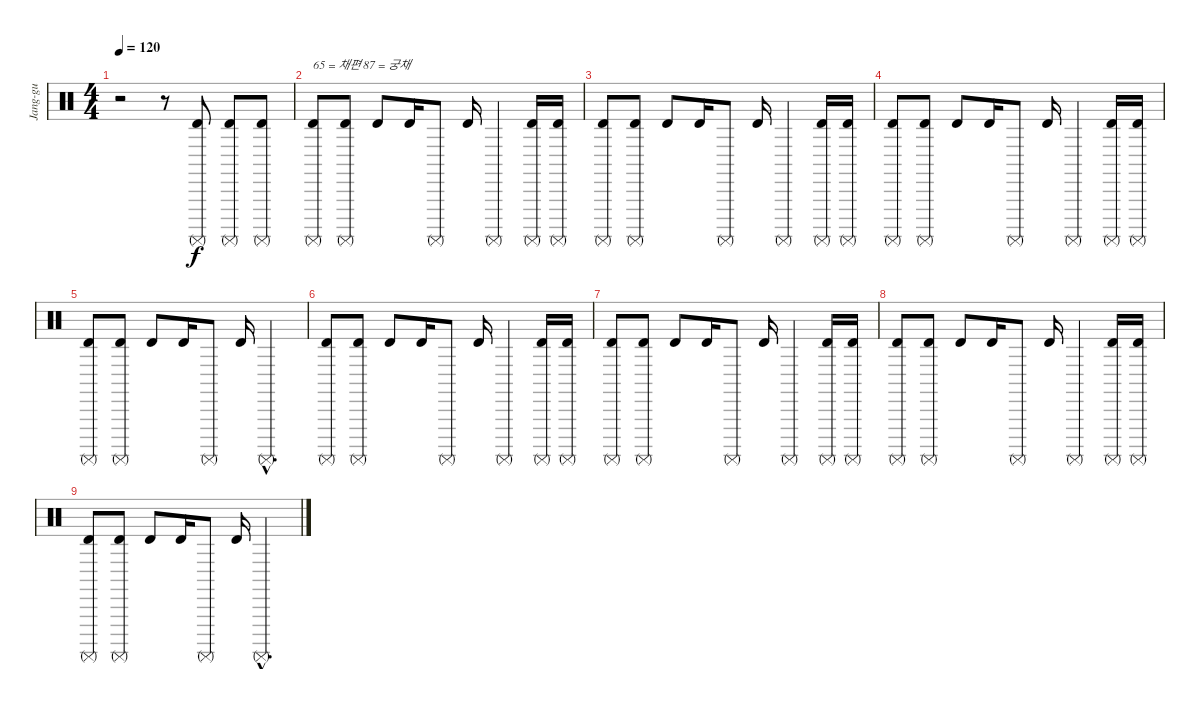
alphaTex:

\track ("Jang-gu" "Jang-gu") {instrument percussion}
\staff {score}
\articulation defaults
\ts (4 4)
\tempo 120
\clef neutral
\ks c
r.2{dy f} r.8 ("Timbale high (hit)" "Surdo (mute)").8 ("Timbale high (hit)" "Surdo (mute)").8 ("Timbale high (hit)" "Surdo (mute)").8 |
("Timbale high (hit)" "Surdo (mute)").8{txt "65 = 채편 87 = 궁채"} ("Timbale high (hit)" "Surdo (mute)").8 "Timbale high (hit)".8 "Timbale high (hit)".16 "Surdo (mute)".8 "Timbale high (hit)".16 "Surdo (mute)".4 ("Timbale high (hit)" "Surdo (mute)").16 ("Timbale high (hit)" "Surdo (mute)").16 |
("Timbale high (hit)" "Surdo (mute)").8 ("Timbale high (hit)" "Surdo (mute)").8 "Timbale high (hit)".8 "Timbale high (hit)".16 "Surdo (mute)".8 "Timbale high (hit)".16 "Surdo (mute)".4 ("Timbale high (hit)" "Surdo (mute)").16 ("Timbale high (hit)" "Surdo (mute)").16 |
("Timbale high (hit)" "Surdo (mute)").8 ("Timbale high (hit)" "Surdo (mute)").8 "Timbale high (hit)".8 "Timbale high (hit)".16 "Surdo (mute)".8 "Timbale high (hit)".16 "Surdo (mute)".4 ("Timbale high (hit)" "Surdo (mute)").16 ("Timbale high (hit)" "Surdo (mute)").16 |
("Timbale high (hit)" "Surdo (mute)").8 ("Timbale high (hit)" "Surdo (mute)").8 "Timbale high (hit)".8 "Timbale high (hit)".16 "Surdo (mute)".8 "Timbale high (hit)".16 "Surdo (mute)"{hac}.4{d} |
("Timbale high (hit)" "Surdo (mute)").8 ("Timbale high (hit)" "Surdo (mute)").8 "Timbale high (hit)".8 "Timbale high (hit)".16 "Surdo (mute)".8 "Timbale high (hit)".16 "Surdo (mute)".4 ("Timbale high (hit)" "Surdo (mute)").16 ("Timbale high (hit)" "Surdo (mute)").16 |
("Timbale high (hit)" "Surdo (mute)").8 ("Timbale high (hit)" "Surdo (mute)").8 "Timbale high (hit)".8 "Timbale high (hit)".16 "Surdo (mute)".8 "Timbale high (hit)".16 "Surdo (mute)".4 ("Timbale high (hit)" "Surdo (mute)").16 ("Timbale high (hit)" "Surdo (mute)").16 |
("Timbale high (hit)" "Surdo (mute)").8 ("Timbale high (hit)" "Surdo (mute)").8 "Timbale high (hit)".8 "Timbale high (hit)".16 "Surdo (mute)".8 "Timbale high (hit)".16 "Surdo (mute)".4 ("Timbale high (hit)" "Surdo (mute)").16 ("Timbale high (hit)" "Surdo (mute)").16 |
("Timbale high (hit)" "Surdo (mute)").8 ("Timbale high (hit)" "Surdo (mute)").8 "Timbale high (hit)".8 "Timbale high (hit)".16 "Surdo (mute)".8 "Timbale high (hit)".16 "Surdo (mute)"{hac}.4{d}
